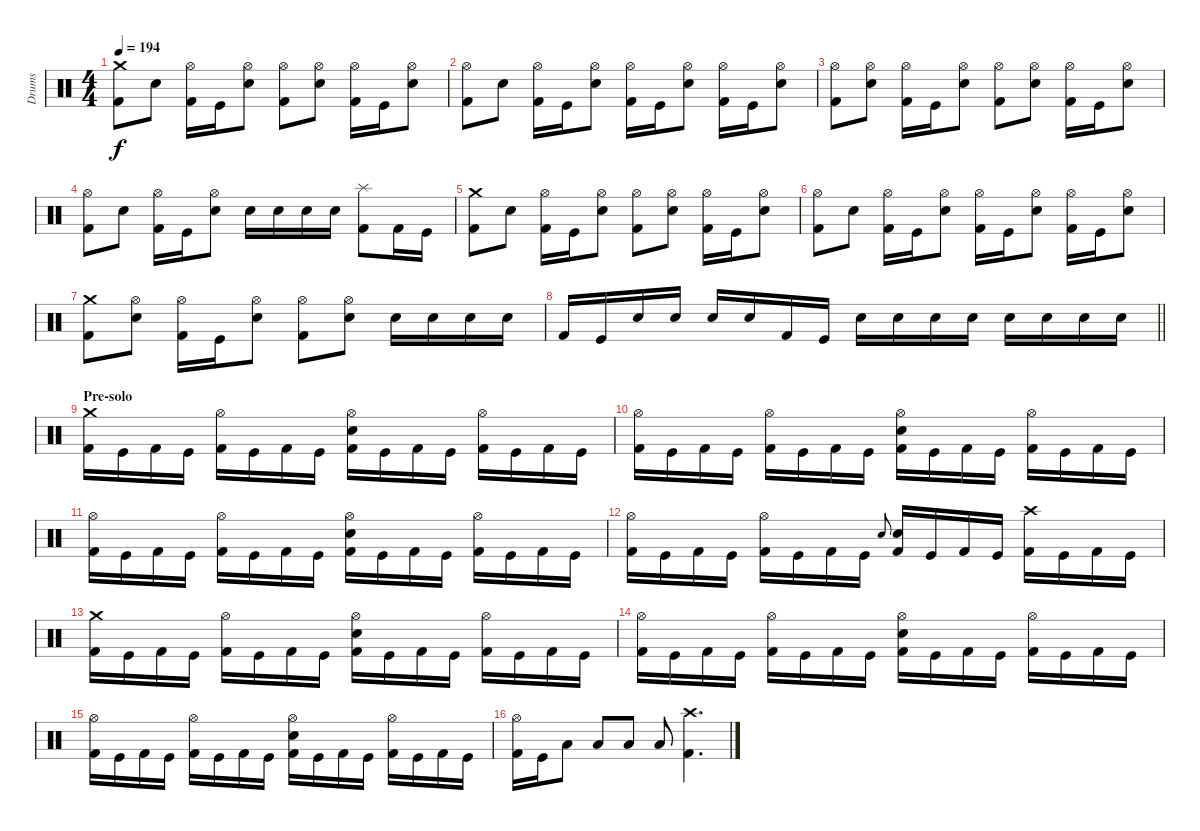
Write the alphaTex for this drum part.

\track ("Drums" "Drums") {instrument percussion}
\staff {score}
\articulation defaults
\ts (4 4)
\tempo 194
\clef neutral
\ks c
("Crash medium (hit)" "Kick (hit) 2").8{dy f} "Snare (hit) 2".8 ("Hi-Hat (open)" "Kick (hit) 2").16 "Kick (hit)".16 ("Hi-Hat (open)" "Snare (hit) 2").8 ("Hi-Hat (open)" "Kick (hit) 2").8 ("Hi-Hat (open)" "Snare (hit) 2").8 ("Hi-Hat (open)" "Kick (hit) 2").16 "Kick (hit)".16 ("Hi-Hat (open)" "Snare (hit) 2").8 |
("Hi-Hat (open)" "Kick (hit) 2").8 "Snare (hit) 2".8 ("Hi-Hat (open)" "Kick (hit) 2").16 "Kick (hit)".16 ("Hi-Hat (open)" "Snare (hit) 2").8 ("Hi-Hat (open)" "Kick (hit) 2").16 "Kick (hit)".16 ("Hi-Hat (open)" "Snare (hit) 2").8 ("Hi-Hat (open)" "Kick (hit) 2").16 "Kick (hit)".16 ("Hi-Hat (open)" "Snare (hit) 2").8 |
("Hi-Hat (open)" "Kick (hit) 2").8 ("Hi-Hat (open)" "Snare (hit) 2").8 ("Hi-Hat (open)" "Kick (hit) 2").16 "Kick (hit)".16 ("Hi-Hat (open)" "Snare (hit) 2").8 ("Hi-Hat (open)" "Kick (hit) 2").8 ("Hi-Hat (open)" "Snare (hit) 2").8 ("Hi-Hat (open)" "Kick (hit) 2").16 "Kick (hit)".16 ("Hi-Hat (open)" "Snare (hit) 2").8 |
("Hi-Hat (open)" "Kick (hit) 2").8 "Snare (hit) 2".8 ("Hi-Hat (open)" "Kick (hit) 2").16 "Kick (hit)".16 ("Hi-Hat (open)" "Snare (hit) 2").8 "Snare (hit) 2".16 "Snare (hit) 2".16 "Snare (hit) 2".16 "Snare (hit) 2".16 ("Splash (hit)" "Kick (hit) 2").8 "Kick (hit) 2".16 "Kick (hit)".16 |
("Crash medium (hit)" "Kick (hit) 2").8 "Snare (hit) 2".8 ("Hi-Hat (open)" "Kick (hit) 2").16 "Kick (hit)".16 ("Hi-Hat (open)" "Snare (hit) 2").8 ("Hi-Hat (open)" "Kick (hit) 2").8 ("Hi-Hat (open)" "Snare (hit) 2").8 ("Hi-Hat (open)" "Kick (hit) 2").16 "Kick (hit)".16 ("Hi-Hat (open)" "Snare (hit) 2").8 |
("Hi-Hat (open)" "Kick (hit) 2").8 "Snare (hit) 2".8 ("Hi-Hat (open)" "Kick (hit) 2").16 "Kick (hit)".16 ("Hi-Hat (open)" "Snare (hit) 2").8 ("Hi-Hat (open)" "Kick (hit) 2").16 "Kick (hit)".16 ("Hi-Hat (open)" "Snare (hit) 2").8 ("Hi-Hat (open)" "Kick (hit) 2").16 "Kick (hit)".16 ("Hi-Hat (open)" "Snare (hit) 2").8 |
("Crash medium (hit)" "Kick (hit) 2").8 ("Hi-Hat (open)" "Snare (hit) 2").8 ("Hi-Hat (open)" "Kick (hit) 2").16 "Kick (hit)".16 ("Hi-Hat (open)" "Snare (hit) 2").8 ("Hi-Hat (open)" "Kick (hit) 2").8 ("Hi-Hat (open)" "Snare (hit) 2").8 "Snare (hit) 2".16 "Snare (hit) 2".16 "Snare (hit) 2".16 "Snare (hit) 2".16 |
\barLineRight lightlight "Kick (hit) 2".16 "Kick (hit)".16 "Snare (hit) 2".16 "Snare (hit) 2".16 "Snare (hit) 2".16 "Snare (hit) 2".16 "Kick (hit) 2".16 "Kick (hit)".16 "Snare (hit) 2".16 "Snare (hit) 2".16 "Snare (hit) 2".16 "Snare (hit) 2".16 "Snare (hit) 2".16 "Snare (hit) 2".16 "Snare (hit) 2".16 "Snare (hit) 2".16
|
\section ("" "Pre-solo")
("Crash medium (hit)" "Kick (hit) 2").16 "Kick (hit)".16 "Kick (hit) 2".16 "Kick (hit)".16 ("Hi-Hat (open)" "Kick (hit) 2").16 "Kick (hit)".16 "Kick (hit) 2".16 "Kick (hit)".16 ("Hi-Hat (open)" "Snare (hit) 2" "Kick (hit) 2").16 "Kick (hit)".16 "Kick (hit) 2".16 "Kick (hit)".16 ("Hi-Hat (open)" "Kick (hit) 2").16 "Kick (hit)".16 "Kick (hit) 2".16 "Kick (hit)".16 |
("Hi-Hat (open)" "Kick (hit) 2").16 "Kick (hit)".16 "Kick (hit) 2".16 "Kick (hit)".16 ("Hi-Hat (open)" "Kick (hit) 2").16 "Kick (hit)".16 "Kick (hit) 2".16 "Kick (hit)".16 ("Hi-Hat (open)" "Snare (hit) 2" "Kick (hit) 2").16 "Kick (hit)".16 "Kick (hit) 2".16 "Kick (hit)".16 ("Hi-Hat (open)" "Kick (hit) 2").16 "Kick (hit)".16 "Kick (hit) 2".16 "Kick (hit)".16 |
("Hi-Hat (open)" "Kick (hit) 2").16 "Kick (hit)".16 "Kick (hit) 2".16 "Kick (hit)".16 ("Hi-Hat (open)" "Kick (hit) 2").16 "Kick (hit)".16 "Kick (hit) 2".16 "Kick (hit)".16 ("Hi-Hat (open)" "Snare (hit) 2" "Kick (hit) 2").16 "Kick (hit)".16 "Kick (hit) 2".16 "Kick (hit)".16 ("Hi-Hat (open)" "Kick (hit) 2").16 "Kick (hit)".16 "Kick (hit) 2".16 "Kick (hit)".16 |
("Hi-Hat (open)" "Kick (hit) 2").16 "Kick (hit)".16 "Kick (hit) 2".16 "Kick (hit)".16 ("Hi-Hat (open)" "Kick (hit) 2").16 "Kick (hit)".16 "Kick (hit) 2".16 "Kick (hit)".16 "Snare (hit) 2".8{gr onbeat} ("Snare (hit) 2" "Kick (hit) 2").16 "Kick (hit)".16 "Kick (hit) 2".16 "Kick (hit)".16 ("Crash high (hit)" "Kick (hit) 2").16 "Kick (hit)".16 "Kick (hit) 2".16 "Kick (hit)".16 |
("Crash medium (hit)" "Kick (hit) 2").16 "Kick (hit)".16 "Kick (hit) 2".16 "Kick (hit)".16 ("Hi-Hat (open)" "Kick (hit) 2").16 "Kick (hit)".16 "Kick (hit) 2".16 "Kick (hit)".16 ("Hi-Hat (open)" "Snare (hit) 2" "Kick (hit) 2").16 "Kick (hit)".16 "Kick (hit) 2".16 "Kick (hit)".16 ("Hi-Hat (open)" "Kick (hit) 2").16 "Kick (hit)".16 "Kick (hit) 2".16 "Kick (hit)".16 |
("Hi-Hat (open)" "Kick (hit) 2").16 "Kick (hit)".16 "Kick (hit) 2".16 "Kick (hit)".16 ("Hi-Hat (open)" "Kick (hit) 2").16 "Kick (hit)".16 "Kick (hit) 2".16 "Kick (hit)".16 ("Hi-Hat (open)" "Snare (hit) 2" "Kick (hit) 2").16 "Kick (hit)".16 "Kick (hit) 2".16 "Kick (hit)".16 ("Hi-Hat (open)" "Kick (hit) 2").16 "Kick (hit)".16 "Kick (hit) 2".16 "Kick (hit)".16 |
("Hi-Hat (open)" "Kick (hit) 2").16 "Kick (hit)".16 "Kick (hit) 2".16 "Kick (hit)".16 ("Hi-Hat (open)" "Kick (hit) 2").16 "Kick (hit)".16 "Kick (hit) 2".16 "Kick (hit)".16 ("Hi-Hat (open)" "Snare (hit) 2" "Kick (hit) 2").16 "Kick (hit)".16 "Kick (hit) 2".16 "Kick (hit)".16 ("Hi-Hat (open)" "Kick (hit) 2").16 "Kick (hit)".16 "Kick (hit) 2".16 "Kick (hit)".16 |
("Hi-Hat (open)" "Kick (hit) 2").16 "Kick (hit)".16 "Low Tom (hit)".8 "Low Tom (hit)".8 "Low Tom (hit)".8 "Low Tom (hit)".8 ("Crash high (hit)" "Kick (hit) 2").4{d}
